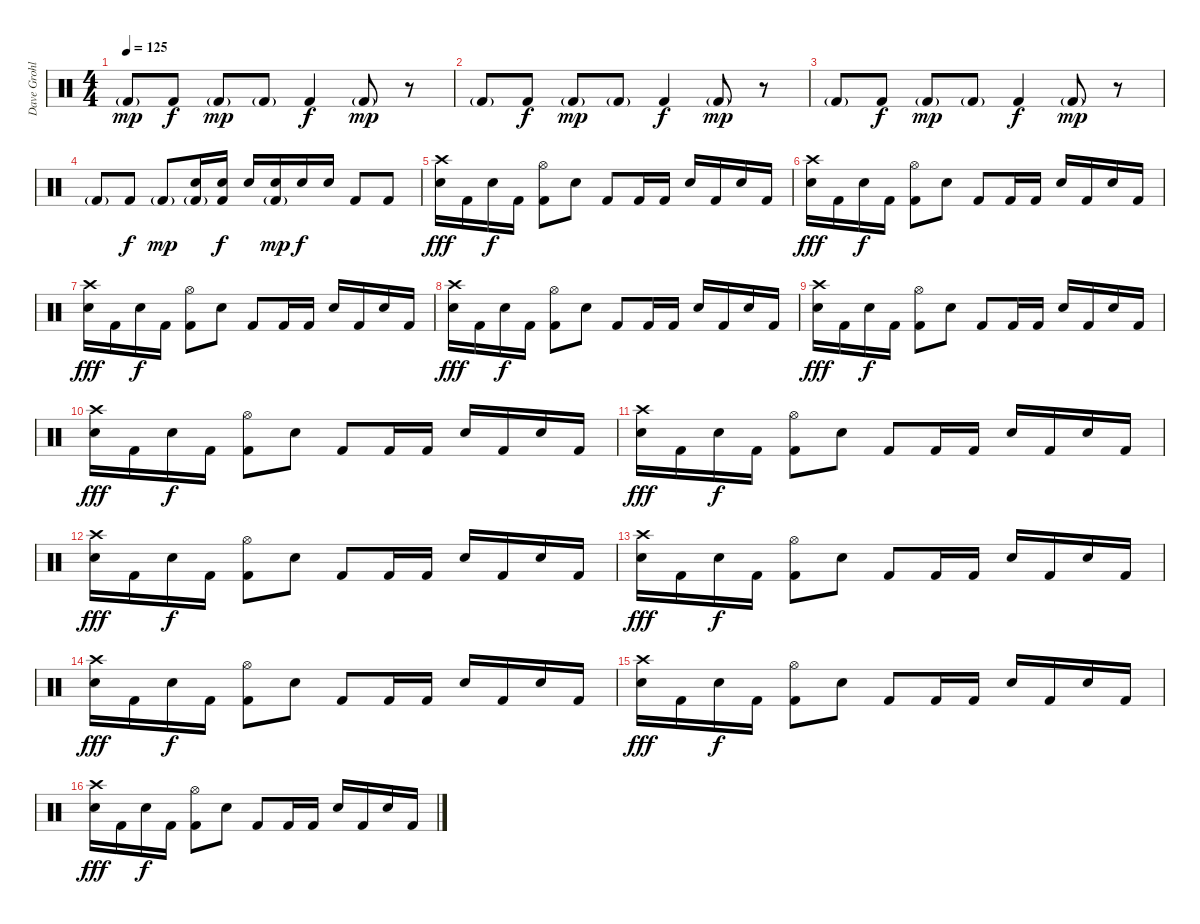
\track ("Dave Grohl" "Dave Grohl") {instrument percussion}
\staff {score}
\articulation defaults
\ts (4 4)
\tempo 125
\clef neutral
\ks c "Kick (hit) 2"{g}.8{dy mp} "Kick (hit) 2".8{dy f} "Kick (hit) 2"{g}.8{dy mp} "Kick (hit) 2"{g}.8 "Kick (hit) 2".4{dy f} "Kick (hit) 2"{g}.8{dy mp}
r.8 |
"Kick (hit) 2"{g}.8 "Kick (hit) 2".8{dy f} "Kick (hit) 2"{g}.8{dy mp} "Kick (hit) 2"{g}.8 "Kick (hit) 2".4{dy f} "Kick (hit) 2"{g}.8{dy mp} r.8 |
"Kick (hit) 2"{g}.8 "Kick (hit) 2".8{dy f} "Kick (hit) 2"{g}.8{dy mp} "Kick (hit) 2"{g}.8 "Kick (hit) 2".4{dy f} "Kick (hit) 2"{g}.8{dy mp} r.8 |
"Kick (hit) 2"{g}.8 "Kick (hit) 2".8{dy f} "Kick (hit) 2"{g}.8{dy mp} ("Snare (hit) 2" "Kick (hit) 2"{g}).16 ("Snare (hit) 2" "Kick (hit) 2").16{dy f} "Snare (hit) 2".16 ("Snare (hit) 2" "Kick (hit) 2"{g}).16{dy mp} "Snare (hit) 2".16{dy f} "Snare (hit) 2".16 "Kick (hit) 2".8 "Kick (hit) 2".8 |
("Crash high (hit)" "Snare (hit) 2").16{dy fff} "Kick (hit) 2".16 "Snare (hit) 2".16{dy f} "Kick (hit) 2".16 ("Hi-Hat (open)" "Kick (hit) 2").8 "Snare (hit) 2".8 "Kick (hit) 2".8 "Kick (hit) 2".16 "Kick (hit) 2".16 "Snare (hit) 2".16 "Kick (hit) 2".16 "Snare (hit) 2".16 "Kick (hit) 2".16 |
("Crash high (hit)" "Snare (hit) 2").16{dy fff} "Kick (hit) 2".16 "Snare (hit) 2".16{dy f} "Kick (hit) 2".16 ("Hi-Hat (open)" "Kick (hit) 2").8 "Snare (hit) 2".8 "Kick (hit) 2".8 "Kick (hit) 2".16 "Kick (hit) 2".16 "Snare (hit) 2".16 "Kick (hit) 2".16 "Snare (hit) 2".16 "Kick (hit) 2".16 |
("Crash high (hit)" "Snare (hit) 2").16{dy fff} "Kick (hit) 2".16 "Snare (hit) 2".16{dy f} "Kick (hit) 2".16 ("Hi-Hat (open)" "Kick (hit) 2").8 "Snare (hit) 2".8 "Kick (hit) 2".8 "Kick (hit) 2".16 "Kick (hit) 2".16 "Snare (hit) 2".16 "Kick (hit) 2".16 "Snare (hit) 2".16 "Kick (hit) 2".16 |
("Crash high (hit)" "Snare (hit) 2").16{dy fff} "Kick (hit) 2".16 "Snare (hit) 2".16{dy f} "Kick (hit) 2".16 ("Hi-Hat (open)" "Kick (hit) 2").8 "Snare (hit) 2".8 "Kick (hit) 2".8 "Kick (hit) 2".16 "Kick (hit) 2".16 "Snare (hit) 2".16 "Kick (hit) 2".16 "Snare (hit) 2".16 "Kick (hit) 2".16 |
("Crash high (hit)" "Snare (hit) 2").16{dy fff} "Kick (hit) 2".16 "Snare (hit) 2".16{dy f} "Kick (hit) 2".16 ("Hi-Hat (open)" "Kick (hit) 2").8 "Snare (hit) 2".8 "Kick (hit) 2".8 "Kick (hit) 2".16 "Kick (hit) 2".16 "Snare (hit) 2".16 "Kick (hit) 2".16 "Snare (hit) 2".16 "Kick (hit) 2".16 |
("Crash high (hit)" "Snare (hit) 2").16{dy fff} "Kick (hit) 2".16 "Snare (hit) 2".16{dy f} "Kick (hit) 2".16 ("Hi-Hat (open)" "Kick (hit) 2").8 "Snare (hit) 2".8 "Kick (hit) 2".8 "Kick (hit) 2".16 "Kick (hit) 2".16 "Snare (hit) 2".16 "Kick (hit) 2".16 "Snare (hit) 2".16 "Kick (hit) 2".16 |
("Crash high (hit)" "Snare (hit) 2").16{dy fff} "Kick (hit) 2".16 "Snare (hit) 2".16{dy f} "Kick (hit) 2".16 ("Hi-Hat (open)" "Kick (hit) 2").8 "Snare (hit) 2".8 "Kick (hit) 2".8 "Kick (hit) 2".16 "Kick (hit) 2".16 "Snare (hit) 2".16 "Kick (hit) 2".16 "Snare (hit) 2".16 "Kick (hit) 2".16 |
("Crash high (hit)" "Snare (hit) 2").16{dy fff} "Kick (hit) 2".16 "Snare (hit) 2".16{dy f} "Kick (hit) 2".16 ("Hi-Hat (open)" "Kick (hit) 2").8 "Snare (hit) 2".8 "Kick (hit) 2".8 "Kick (hit) 2".16 "Kick (hit) 2".16 "Snare (hit) 2".16 "Kick (hit) 2".16 "Snare (hit) 2".16 "Kick (hit) 2".16 |
("Crash high (hit)" "Snare (hit) 2").16{dy fff} "Kick (hit) 2".16 "Snare (hit) 2".16{dy f} "Kick (hit) 2".16 ("Hi-Hat (open)" "Kick (hit) 2").8 "Snare (hit) 2".8 "Kick (hit) 2".8 "Kick (hit) 2".16 "Kick (hit) 2".16 "Snare (hit) 2".16 "Kick (hit) 2".16 "Snare (hit) 2".16 "Kick (hit) 2".16 |
("Crash high (hit)" "Snare (hit) 2").16{dy fff} "Kick (hit) 2".16 "Snare (hit) 2".16{dy f} "Kick (hit) 2".16 ("Hi-Hat (open)" "Kick (hit) 2").8 "Snare (hit) 2".8 "Kick (hit) 2".8 "Kick (hit) 2".16 "Kick (hit) 2".16 "Snare (hit) 2".16 "Kick (hit) 2".16 "Snare (hit) 2".16 "Kick (hit) 2".16 |
("Crash high (hit)" "Snare (hit) 2").16{dy fff} "Kick (hit) 2".16 "Snare (hit) 2".16{dy f} "Kick (hit) 2".16 ("Hi-Hat (open)" "Kick (hit) 2").8 "Snare (hit) 2".8 "Kick (hit) 2".8 "Kick (hit) 2".16 "Kick (hit) 2".16 "Snare (hit) 2".16 "Kick (hit) 2".16 "Snare (hit) 2".16 "Kick (hit) 2".16 |
("Crash high (hit)" "Snare (hit) 2").16{dy fff} "Kick (hit) 2".16 "Snare (hit) 2".16{dy f} "Kick (hit) 2".16 ("Hi-Hat (open)" "Kick (hit) 2").8 "Snare (hit) 2".8 "Kick (hit) 2".8 "Kick (hit) 2".16 "Kick (hit) 2".16 "Snare (hit) 2".16 "Kick (hit) 2".16 "Snare (hit) 2".16 "Kick (hit) 2".16
